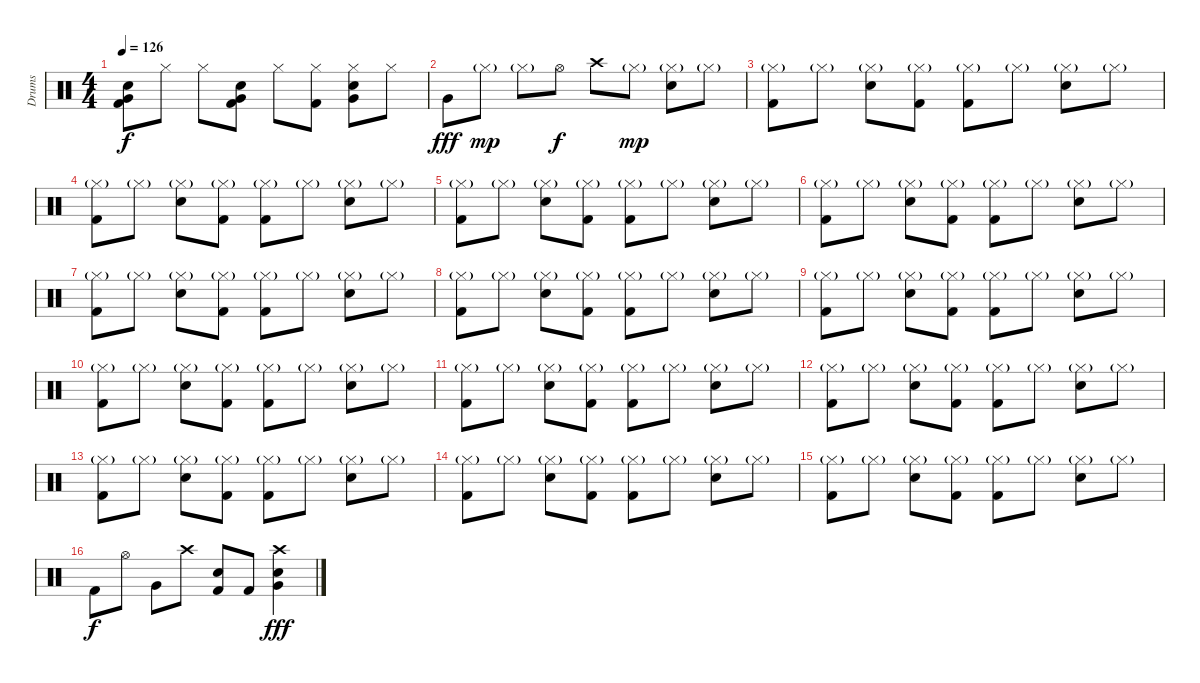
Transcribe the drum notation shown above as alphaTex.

\track ("Drums" "Drums") {instrument percussion}
\staff {score}
\articulation defaults
\ts (4 4)
\tempo 126
\clef neutral
\ks c
("Snare (hit) 2" "Very Low Tom (hit)" "Kick (hit) 2").8{dy f} "Hi-Hat (closed)".8 "Hi-Hat (closed)".8 ("Snare (hit) 2" "Very Low Tom (hit)" "Kick (hit) 2").8 "Hi-Hat (closed)".8 ("Hi-Hat (closed)" "Kick (hit) 2").8 ("Hi-Hat (closed)" "Snare (hit) 2" "Very Low Tom (hit)").8 "Hi-Hat (closed)".8 |
"Very Low Tom (hit)".8{dy fff} "Hi-Hat (closed)"{g}.8{dy mp} "Hi-Hat (closed)"{g}.8 "Hi-Hat (open)".8{dy f} "Crash high (hit)".8 "Hi-Hat (closed)"{g}.8{dy mp} ("Hi-Hat (closed)"{g} "Snare (hit) 2").8 "Hi-Hat (closed)"{g}.8 |
("Hi-Hat (closed)"{g} "Kick (hit) 2").8 "Hi-Hat (closed)"{g}.8 ("Hi-Hat (closed)"{g} "Snare (hit) 2").8 ("Hi-Hat (closed)"{g} "Kick (hit) 2").8 ("Hi-Hat (closed)"{g} "Kick (hit) 2").8 "Hi-Hat (closed)"{g}.8 ("Hi-Hat (closed)"{g} "Snare (hit) 2").8 "Hi-Hat (closed)"{g}.8 |
("Hi-Hat (closed)"{g} "Kick (hit) 2").8 "Hi-Hat (closed)"{g}.8 ("Hi-Hat (closed)"{g} "Snare (hit) 2").8 ("Hi-Hat (closed)"{g} "Kick (hit) 2").8 ("Hi-Hat (closed)"{g} "Kick (hit) 2").8 "Hi-Hat (closed)"{g}.8 ("Hi-Hat (closed)"{g} "Snare (hit) 2").8 "Hi-Hat (closed)"{g}.8 |
("Hi-Hat (closed)"{g} "Kick (hit) 2").8 "Hi-Hat (closed)"{g}.8 ("Hi-Hat (closed)"{g} "Snare (hit) 2").8 ("Hi-Hat (closed)"{g} "Kick (hit) 2").8 ("Hi-Hat (closed)"{g} "Kick (hit) 2").8 "Hi-Hat (closed)"{g}.8 ("Hi-Hat (closed)"{g} "Snare (hit) 2").8 "Hi-Hat (closed)"{g}.8 |
("Hi-Hat (closed)"{g} "Kick (hit) 2").8 "Hi-Hat (closed)"{g}.8 ("Hi-Hat (closed)"{g} "Snare (hit) 2").8 ("Hi-Hat (closed)"{g} "Kick (hit) 2").8 ("Hi-Hat (closed)"{g} "Kick (hit) 2").8 "Hi-Hat (closed)"{g}.8 ("Hi-Hat (closed)"{g} "Snare (hit) 2").8 "Hi-Hat (closed)"{g}.8 |
("Hi-Hat (closed)"{g} "Kick (hit) 2").8 "Hi-Hat (closed)"{g}.8 ("Hi-Hat (closed)"{g} "Snare (hit) 2").8 ("Hi-Hat (closed)"{g} "Kick (hit) 2").8 ("Hi-Hat (closed)"{g} "Kick (hit) 2").8 "Hi-Hat (closed)"{g}.8 ("Hi-Hat (closed)"{g} "Snare (hit) 2").8 "Hi-Hat (closed)"{g}.8 |
("Hi-Hat (closed)"{g} "Kick (hit) 2").8 "Hi-Hat (closed)"{g}.8 ("Hi-Hat (closed)"{g} "Snare (hit) 2").8 ("Hi-Hat (closed)"{g} "Kick (hit) 2").8 ("Hi-Hat (closed)"{g} "Kick (hit) 2").8 "Hi-Hat (closed)"{g}.8 ("Hi-Hat (closed)"{g} "Snare (hit) 2").8 "Hi-Hat (closed)"{g}.8 |
("Hi-Hat (closed)"{g} "Kick (hit) 2").8 "Hi-Hat (closed)"{g}.8 ("Hi-Hat (closed)"{g} "Snare (hit) 2").8 ("Hi-Hat (closed)"{g} "Kick (hit) 2").8 ("Hi-Hat (closed)"{g} "Kick (hit) 2").8 "Hi-Hat (closed)"{g}.8 ("Hi-Hat (closed)"{g} "Snare (hit) 2").8 "Hi-Hat (closed)"{g}.8 |
("Hi-Hat (closed)"{g} "Kick (hit) 2").8 "Hi-Hat (closed)"{g}.8 ("Hi-Hat (closed)"{g} "Snare (hit) 2").8 ("Hi-Hat (closed)"{g} "Kick (hit) 2").8 ("Hi-Hat (closed)"{g} "Kick (hit) 2").8 "Hi-Hat (closed)"{g}.8 ("Hi-Hat (closed)"{g} "Snare (hit) 2").8 "Hi-Hat (closed)"{g}.8 |
("Hi-Hat (closed)"{g} "Kick (hit) 2").8 "Hi-Hat (closed)"{g}.8 ("Hi-Hat (closed)"{g} "Snare (hit) 2").8 ("Hi-Hat (closed)"{g} "Kick (hit) 2").8 ("Hi-Hat (closed)"{g} "Kick (hit) 2").8 "Hi-Hat (closed)"{g}.8 ("Hi-Hat (closed)"{g} "Snare (hit) 2").8 "Hi-Hat (closed)"{g}.8 |
("Hi-Hat (closed)"{g} "Kick (hit) 2").8 "Hi-Hat (closed)"{g}.8 ("Hi-Hat (closed)"{g} "Snare (hit) 2").8 ("Hi-Hat (closed)"{g} "Kick (hit) 2").8 ("Hi-Hat (closed)"{g} "Kick (hit) 2").8 "Hi-Hat (closed)"{g}.8 ("Hi-Hat (closed)"{g} "Snare (hit) 2").8 "Hi-Hat (closed)"{g}.8 |
("Hi-Hat (closed)"{g} "Kick (hit) 2").8 "Hi-Hat (closed)"{g}.8 ("Hi-Hat (closed)"{g} "Snare (hit) 2").8 ("Hi-Hat (closed)"{g} "Kick (hit) 2").8 ("Hi-Hat (closed)"{g} "Kick (hit) 2").8 "Hi-Hat (closed)"{g}.8 ("Hi-Hat (closed)"{g} "Snare (hit) 2").8 "Hi-Hat (closed)"{g}.8 |
("Hi-Hat (closed)"{g} "Kick (hit) 2").8 "Hi-Hat (closed)"{g}.8 ("Hi-Hat (closed)"{g} "Snare (hit) 2").8 ("Hi-Hat (closed)"{g} "Kick (hit) 2").8 ("Hi-Hat (closed)"{g} "Kick (hit) 2").8 "Hi-Hat (closed)"{g}.8 ("Hi-Hat (closed)"{g} "Snare (hit) 2").8 "Hi-Hat (closed)"{g}.8 |
("Hi-Hat (closed)"{g} "Kick (hit) 2").8 "Hi-Hat (closed)"{g}.8 ("Hi-Hat (closed)"{g} "Snare (hit) 2").8 ("Hi-Hat (closed)"{g} "Kick (hit) 2").8 ("Hi-Hat (closed)"{g} "Kick (hit) 2").8 "Hi-Hat (closed)"{g}.8 ("Hi-Hat (closed)"{g} "Snare (hit) 2").8 "Hi-Hat (closed)"{g}.8 |
"Kick (hit) 2".8{dy f} "Hi-Hat (open)".8 "Very Low Tom (hit)".8 "Crash high (hit)".8 ("Snare (hit) 2" "Kick (hit) 2").8 "Kick (hit) 2".8 ("Crash high (hit)" "Snare (hit) 2" "Very Low Tom (hit)").4{dy fff}
